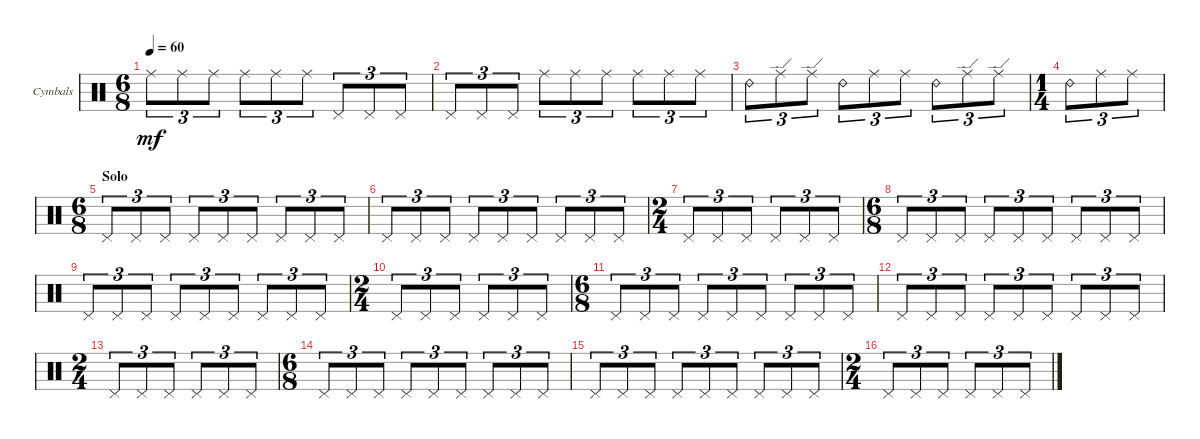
\defaultSystemsLayout 4
\bracketExtendMode groupsimilarinstruments
\firstSystemTrackNameOrientation horizontal
\otherSystemsTrackNameOrientation horizontal
\track ("Cymbals" "Cymbals") {instrument percussion}
\staff {score}
\articulation defaults
\ts (6 8)
\tempo 60
\clef neutral
\scale
0.262911
\ks c "Ride (middle)".8{tu (3 2) dy mf} "Ride (middle)".8{tu (3 2)} "Ride (middle)".8{tu (3 2)} "Ride (middle)".8{tu (3 2)} "Ride (middle)".8{tu (3 2)} "Ride (middle)".8{tu (3 2)} "Pedal Hi-Hat (hit)".8{tu (3 2)} "Pedal Hi-Hat (hit)".8{tu (3 2)} "Pedal Hi-Hat (hit)".8{tu (3 2)}
|
\scale
0.262911 "Pedal Hi-Hat (hit)".8{tu (3 2)} "Pedal Hi-Hat (hit)".8{tu (3 2)} "Pedal Hi-Hat (hit)".8{tu (3 2)} "Ride (middle)".8{tu (3 2)} "Ride (middle)".8{tu (3 2)} "Ride (middle)".8{tu (3 2)} "Ride (middle)".8{tu (3 2)} "Ride (middle)".8{tu (3 2)} "Ride (middle)".8{tu (3 2)} |
\scale
0.262911 "Ride (bell) 2".8{tu (3 2)} "Ride (edge)".8{tu (3 2)} "Ride (edge)".8{tu (3 2)} "Ride (bell) 2".8{tu (3 2)} "Ride (middle)".8{tu (3 2)} "Ride (middle)".8{tu (3 2)} "Ride (bell) 2".8{tu (3 2)} "Ride (edge)".8{tu (3 2)} "Ride (edge)".8{tu (3 2)} |
\ts (1 4)
\scale
0.474178 "Ride (bell) 2".8{tu (3 2)} "Ride (middle)".8{tu (3 2)} "Ride (middle)".8{tu (3 2)} |
\ts (6 8)
\section ("" "Solo")
"Pedal Hi-Hat (hit)".8{tu (3 2)} "Pedal Hi-Hat (hit)".8{tu (3 2)} "Pedal Hi-Hat (hit)".8{tu (3 2)} "Pedal Hi-Hat (hit)".8{tu (3 2)} "Pedal Hi-Hat (hit)".8{tu (3 2)} "Pedal Hi-Hat (hit)".8{tu (3 2)} "Pedal Hi-Hat (hit)".8{tu (3 2)} "Pedal Hi-Hat (hit)".8{tu (3 2)} "Pedal Hi-Hat (hit)".8{tu (3 2)} |
"Pedal Hi-Hat (hit)".8{tu (3 2)} "Pedal Hi-Hat (hit)".8{tu (3 2)} "Pedal Hi-Hat (hit)".8{tu (3 2)} "Pedal Hi-Hat (hit)".8{tu (3 2)} "Pedal Hi-Hat (hit)".8{tu (3 2)} "Pedal Hi-Hat (hit)".8{tu (3 2)} "Pedal Hi-Hat (hit)".8{tu (3 2)} "Pedal Hi-Hat (hit)".8{tu (3 2)} "Pedal Hi-Hat (hit)".8{tu (3 2)} |
\ts (2 4)
"Pedal Hi-Hat (hit)".8{tu (3 2)} "Pedal Hi-Hat (hit)".8{tu (3 2)} "Pedal Hi-Hat (hit)".8{tu (3 2)} "Pedal Hi-Hat (hit)".8{tu (3 2)} "Pedal Hi-Hat (hit)".8{tu (3 2)} "Pedal Hi-Hat (hit)".8{tu (3 2)} |
\ts (6 8)
"Pedal Hi-Hat (hit)".8{tu (3 2)} "Pedal Hi-Hat (hit)".8{tu (3 2)} "Pedal Hi-Hat (hit)".8{tu (3 2)} "Pedal Hi-Hat (hit)".8{tu (3 2)} "Pedal Hi-Hat (hit)".8{tu (3 2)} "Pedal Hi-Hat (hit)".8{tu (3 2)} "Pedal Hi-Hat (hit)".8{tu (3 2)} "Pedal Hi-Hat (hit)".8{tu (3 2)} "Pedal Hi-Hat (hit)".8{tu (3 2)} |
"Pedal Hi-Hat (hit)".8{tu (3 2)} "Pedal Hi-Hat (hit)".8{tu (3 2)} "Pedal Hi-Hat (hit)".8{tu (3 2)} "Pedal Hi-Hat (hit)".8{tu (3 2)} "Pedal Hi-Hat (hit)".8{tu (3 2)} "Pedal Hi-Hat (hit)".8{tu (3 2)} "Pedal Hi-Hat (hit)".8{tu (3 2)} "Pedal Hi-Hat (hit)".8{tu (3 2)} "Pedal Hi-Hat (hit)".8{tu (3 2)} |
\ts (2 4)
"Pedal Hi-Hat (hit)".8{tu (3 2)} "Pedal Hi-Hat (hit)".8{tu (3 2)} "Pedal Hi-Hat (hit)".8{tu (3 2)} "Pedal Hi-Hat (hit)".8{tu (3 2)} "Pedal Hi-Hat (hit)".8{tu (3 2)} "Pedal Hi-Hat (hit)".8{tu (3 2)} |
\ts (6 8)
"Pedal Hi-Hat (hit)".8{tu (3 2)} "Pedal Hi-Hat (hit)".8{tu (3 2)} "Pedal Hi-Hat (hit)".8{tu (3 2)} "Pedal Hi-Hat (hit)".8{tu (3 2)} "Pedal Hi-Hat (hit)".8{tu (3 2)} "Pedal Hi-Hat (hit)".8{tu (3 2)} "Pedal Hi-Hat (hit)".8{tu (3 2)} "Pedal Hi-Hat (hit)".8{tu (3 2)} "Pedal Hi-Hat (hit)".8{tu (3 2)} |
"Pedal Hi-Hat (hit)".8{tu (3 2)} "Pedal Hi-Hat (hit)".8{tu (3 2)} "Pedal Hi-Hat (hit)".8{tu (3 2)} "Pedal Hi-Hat (hit)".8{tu (3 2)} "Pedal Hi-Hat (hit)".8{tu (3 2)} "Pedal Hi-Hat (hit)".8{tu (3 2)} "Pedal Hi-Hat (hit)".8{tu (3 2)} "Pedal Hi-Hat (hit)".8{tu (3 2)} "Pedal Hi-Hat (hit)".8{tu (3 2)} |
\ts (2 4)
"Pedal Hi-Hat (hit)".8{tu (3 2)} "Pedal Hi-Hat (hit)".8{tu (3 2)} "Pedal Hi-Hat (hit)".8{tu (3 2)} "Pedal Hi-Hat (hit)".8{tu (3 2)} "Pedal Hi-Hat (hit)".8{tu (3 2)} "Pedal Hi-Hat (hit)".8{tu (3 2)} |
\ts (6 8)
"Pedal Hi-Hat (hit)".8{tu (3 2)} "Pedal Hi-Hat (hit)".8{tu (3 2)} "Pedal Hi-Hat (hit)".8{tu (3 2)} "Pedal Hi-Hat (hit)".8{tu (3 2)} "Pedal Hi-Hat (hit)".8{tu (3 2)} "Pedal Hi-Hat (hit)".8{tu (3 2)} "Pedal Hi-Hat (hit)".8{tu (3 2)} "Pedal Hi-Hat (hit)".8{tu (3 2)} "Pedal Hi-Hat (hit)".8{tu (3 2)} |
"Pedal Hi-Hat (hit)".8{tu (3 2)} "Pedal Hi-Hat (hit)".8{tu (3 2)} "Pedal Hi-Hat (hit)".8{tu (3 2)} "Pedal Hi-Hat (hit)".8{tu (3 2)} "Pedal Hi-Hat (hit)".8{tu (3 2)} "Pedal Hi-Hat (hit)".8{tu (3 2)} "Pedal Hi-Hat (hit)".8{tu (3 2)} "Pedal Hi-Hat (hit)".8{tu (3 2)} "Pedal Hi-Hat (hit)".8{tu (3 2)} |
\ts (2 4)
"Pedal Hi-Hat (hit)".8{tu (3 2)} "Pedal Hi-Hat (hit)".8{tu (3 2)} "Pedal Hi-Hat (hit)".8{tu (3 2)} "Pedal Hi-Hat (hit)".8{tu (3 2)} "Pedal Hi-Hat (hit)".8{tu (3 2)} "Pedal Hi-Hat (hit)".8{tu (3 2)}
